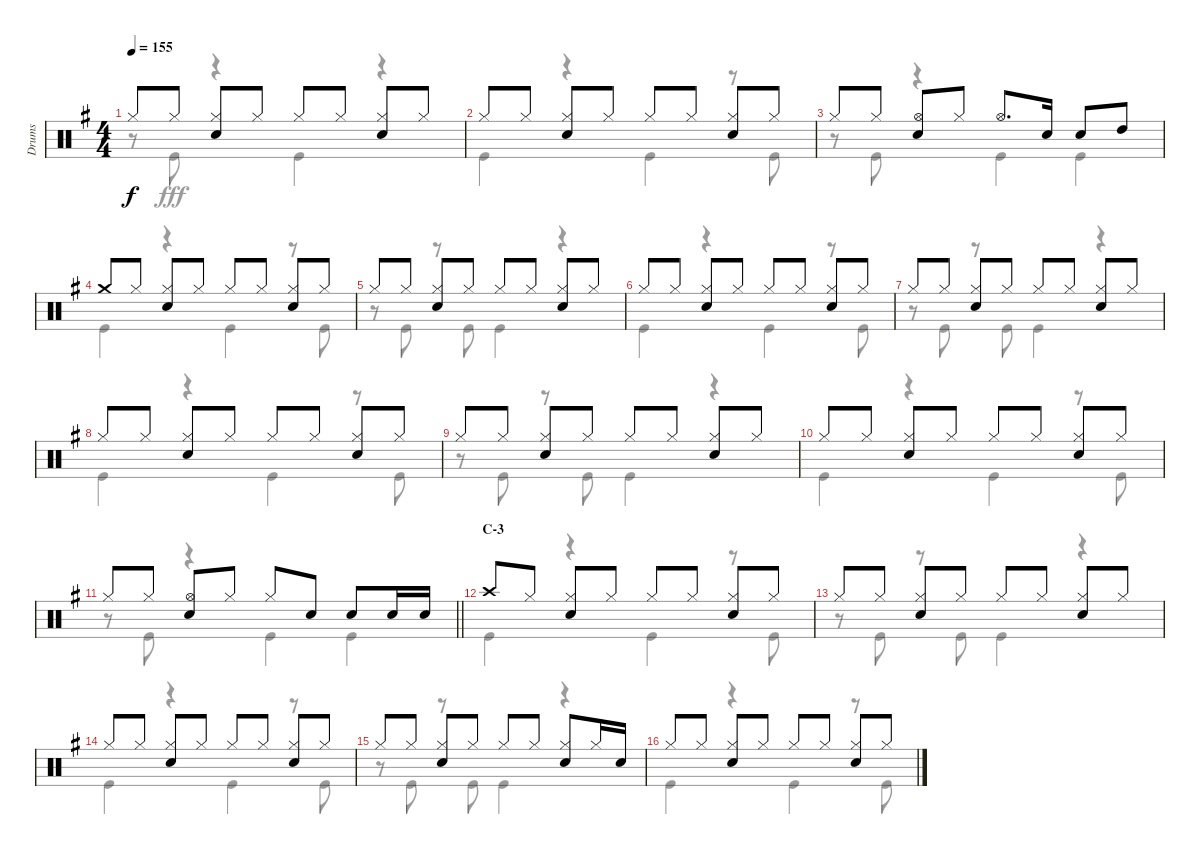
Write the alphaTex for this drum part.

\track ("Drums" "Drums") {instrument percussion}
\staff {score}
\articulation defaults
\voice
\ts (4 4)
\tempo 155
\clef neutral
\ks g "Hi-Hat (closed)".8{dy f} "Hi-Hat (closed)".8
("Hi-Hat (closed)" "Snare (hit) 2").8 "Hi-Hat (closed)".8 "Hi-Hat (closed)".8 "Hi-Hat (closed)".8 ("Hi-Hat (closed)" "Snare (hit) 2").8 "Hi-Hat (closed)".8 |
"Hi-Hat (closed)".8 "Hi-Hat (closed)".8 ("Hi-Hat (closed)" "Snare (hit) 2").8 "Hi-Hat (closed)".8 "Hi-Hat (closed)".8 "Hi-Hat (closed)".8 ("Hi-Hat (closed)" "Snare (hit) 2").8 "Hi-Hat (closed)".8 |
"Hi-Hat (closed)".8 "Hi-Hat (closed)".8 ("Hi-Hat (open)" "Snare (hit) 2").8 "Hi-Hat (closed)".8 "Hi-Hat (open)".8{d} "Snare (hit) 2".16 "Snare (hit) 2".8 "High Tom (hit)".8 |
"Crash medium (hit)".8 "Hi-Hat (closed)".8 ("Hi-Hat (closed)" "Snare (hit) 2").8 "Hi-Hat (closed)".8 "Hi-Hat (closed)".8 "Hi-Hat (closed)".8 ("Hi-Hat (closed)" "Snare (hit) 2").8 "Hi-Hat (closed)".8 |
"Hi-Hat (closed)".8 "Hi-Hat (closed)".8 ("Hi-Hat (closed)" "Snare (hit) 2").8 "Hi-Hat (closed)".8 "Hi-Hat (closed)".8 "Hi-Hat (closed)".8 ("Hi-Hat (closed)" "Snare (hit) 2").8 "Hi-Hat (closed)".8 |
"Hi-Hat (closed)".8 "Hi-Hat (closed)".8 ("Hi-Hat (closed)" "Snare (hit) 2").8 "Hi-Hat (closed)".8 "Hi-Hat (closed)".8 "Hi-Hat (closed)".8 ("Hi-Hat (closed)" "Snare (hit) 2").8 "Hi-Hat (closed)".8 |
"Hi-Hat (closed)".8 "Hi-Hat (closed)".8 ("Hi-Hat (closed)" "Snare (hit) 2").8 "Hi-Hat (closed)".8 "Hi-Hat (closed)".8 "Hi-Hat (closed)".8 ("Hi-Hat (closed)" "Snare (hit) 2").8 "Hi-Hat (closed)".8 |
"Hi-Hat (closed)".8 "Hi-Hat (closed)".8 ("Hi-Hat (closed)" "Snare (hit) 2").8 "Hi-Hat (closed)".8 "Hi-Hat (closed)".8 "Hi-Hat (closed)".8 ("Hi-Hat (closed)" "Snare (hit) 2").8 "Hi-Hat (closed)".8 |
"Hi-Hat (closed)".8 "Hi-Hat (closed)".8 ("Hi-Hat (closed)" "Snare (hit) 2").8 "Hi-Hat (closed)".8 "Hi-Hat (closed)".8 "Hi-Hat (closed)".8 ("Hi-Hat (closed)" "Snare (hit) 2").8 "Hi-Hat (closed)".8 |
"Hi-Hat (closed)".8 "Hi-Hat (closed)".8 ("Hi-Hat (closed)" "Snare (hit) 2").8 "Hi-Hat (closed)".8 "Hi-Hat (closed)".8 "Hi-Hat (closed)".8 ("Hi-Hat (closed)" "Snare (hit) 2").8 "Hi-Hat (closed)".8 |
\barLineRight lightlight "Hi-Hat (closed)".8 "Hi-Hat (closed)".8
("Hi-Hat (open)" "Snare (hit) 2").8 "Hi-Hat (closed)".8 "Hi-Hat (closed)".8 "Snare (hit) 2".8 "Snare (hit) 2".8 "Snare (hit) 2".16 "Snare (hit) 2".16 |
\section ("" "C-3")
"Crash high (hit)".8 "Hi-Hat (closed)".8 ("Hi-Hat (closed)" "Snare (hit) 2").8 "Hi-Hat (closed)".8 "Hi-Hat (closed)".8 "Hi-Hat (closed)".8 ("Hi-Hat (closed)" "Snare (hit) 2").8 "Hi-Hat (closed)".8 |
"Hi-Hat (closed)".8 "Hi-Hat (closed)".8 ("Hi-Hat (closed)" "Snare (hit) 2").8 "Hi-Hat (closed)".8 "Hi-Hat (closed)".8 "Hi-Hat (closed)".8 ("Hi-Hat (closed)" "Snare (hit) 2").8 "Hi-Hat (closed)".8 |
"Hi-Hat (closed)".8 "Hi-Hat (closed)".8 ("Hi-Hat (closed)" "Snare (hit) 2").8 "Hi-Hat (closed)".8 "Hi-Hat (closed)".8 "Hi-Hat (closed)".8 ("Hi-Hat (closed)" "Snare (hit) 2").8 "Hi-Hat (closed)".8 |
"Hi-Hat (closed)".8 "Hi-Hat (closed)".8 ("Hi-Hat (closed)" "Snare (hit) 2").8 "Hi-Hat (closed)".8 "Hi-Hat (closed)".8 "Hi-Hat (closed)".8 ("Hi-Hat (closed)" "Snare (hit) 2").8 "Hi-Hat (closed)".16 "Snare (hit) 2".16 |
"Hi-Hat (closed)".8 "Hi-Hat (closed)".8 ("Hi-Hat (closed)" "Snare (hit) 2").8 "Hi-Hat (closed)".8 "Hi-Hat (closed)".8 "Hi-Hat (closed)".8 ("Hi-Hat (closed)" "Snare (hit) 2").8 "Hi-Hat (closed)".8
\voice
\clef neutral
\ottava regular
\simile none
\ks g
r.8{dy fff} "Kick (hit)".8 r.4 "Kick (hit)".4 r.4 |
"Kick (hit)".4 r.4 "Kick (hit)".4 r.8 "Kick (hit)".8 |
r.8 "Kick (hit)".8 r.4 "Kick (hit)".4 "Kick (hit)".4 |
"Kick (hit)".4 r.4 "Kick (hit)".4 r.8 "Kick (hit)".8 |
r.8 "Kick (hit)".8 r.8 "Kick (hit)".8 "Kick (hit)".4 r.4 |
"Kick (hit)".4 r.4 "Kick (hit)".4 r.8 "Kick (hit)".8 |
r.8 "Kick (hit)".8 r.8 "Kick (hit)".8 "Kick (hit)".4 r.4 |
"Kick (hit)".4 r.4 "Kick (hit)".4 r.8 "Kick (hit)".8 |
r.8 "Kick (hit)".8 r.8 "Kick (hit)".8 "Kick (hit)".4 r.4 |
"Kick (hit)".4 r.4 "Kick (hit)".4 r.8 "Kick (hit)".8 |
\barLineRight lightlight
r.8 "Kick (hit)".8 r.4 "Kick (hit)".4 "Kick (hit)".4 |
"Kick (hit)".4 r.4 "Kick (hit)".4 r.8 "Kick (hit)".8 |
r.8 "Kick (hit)".8 r.8 "Kick (hit)".8 "Kick (hit)".4 r.4 |
"Kick (hit)".4 r.4 "Kick (hit)".4 r.8 "Kick (hit)".8 |
r.8 "Kick (hit)".8 r.8 "Kick (hit)".8 "Kick (hit)".4 r.4 |
"Kick (hit)".4 r.4 "Kick (hit)".4 r.8 "Kick (hit)".8
